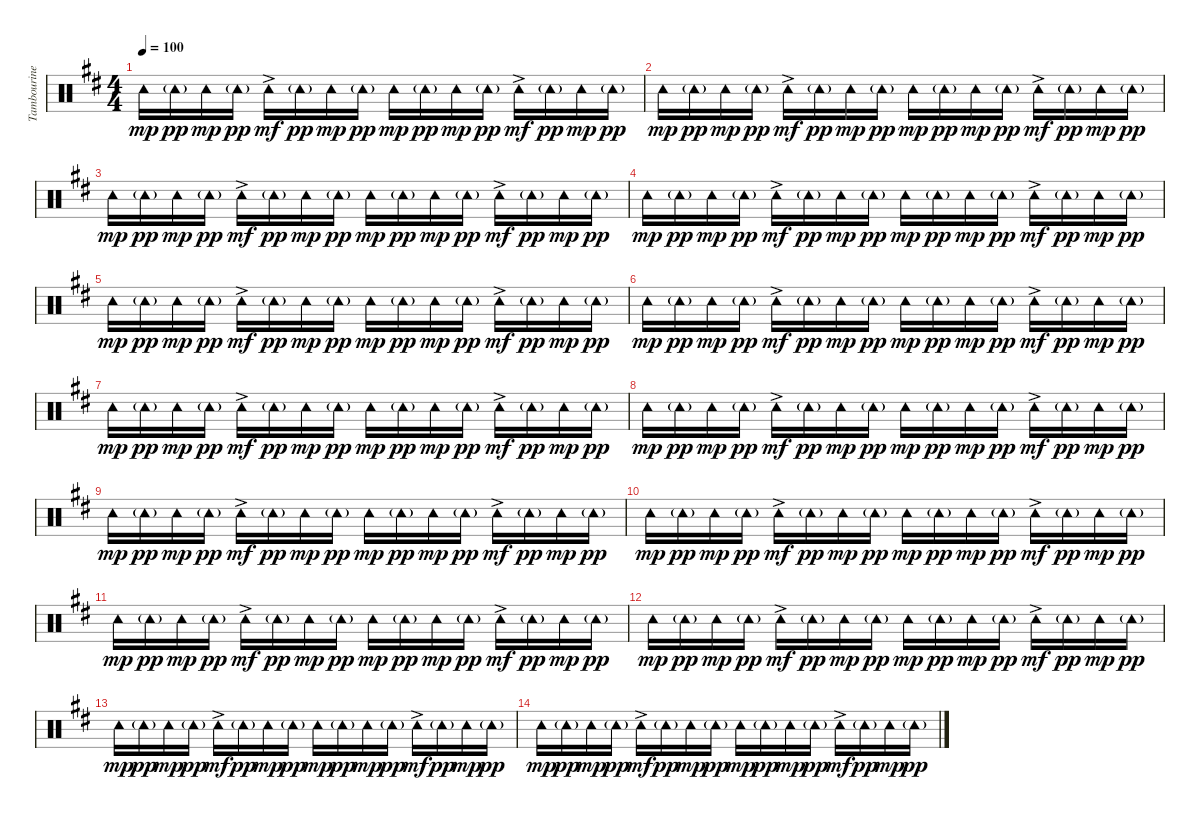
\track ("Tambourine" "Tambourine") {instrument percussion}
\staff {score}
\articulation defaults
\ts (4 4)
\tempo 100
\clef neutral
\ks d "Tambourine (hit)".16{dy mp} "Tambourine (hit)"{g}.16{dy pp} "Tambourine (hit)".16{dy mp} "Tambourine (hit)"{g}.16{dy pp} "Tambourine (hit)"{ac}.16{dy mf} "Tambourine (hit)"{g}.16{dy pp} "Tambourine (hit)".16{dy mp} "Tambourine (hit)"{g}.16{dy pp} "Tambourine (hit)".16{dy mp} "Tambourine (hit)"{g}.16{dy pp} "Tambourine (hit)".16{dy mp} "Tambourine (hit)"{g}.16{dy pp} "Tambourine (hit)"{ac}.16{dy mf} "Tambourine (hit)"{g}.16{dy pp} "Tambourine (hit)".16{dy mp} "Tambourine (hit)"{g}.16{dy pp}
|
"Tambourine (hit)".16{dy mp} "Tambourine (hit)"{g}.16{dy pp} "Tambourine (hit)".16{dy mp} "Tambourine (hit)"{g}.16{dy pp} "Tambourine (hit)"{ac}.16{dy mf} "Tambourine (hit)"{g}.16{dy pp} "Tambourine (hit)".16{dy mp} "Tambourine (hit)"{g}.16{dy pp} "Tambourine (hit)".16{dy mp} "Tambourine (hit)"{g}.16{dy pp} "Tambourine (hit)".16{dy mp} "Tambourine (hit)"{g}.16{dy pp} "Tambourine (hit)"{ac}.16{dy mf} "Tambourine (hit)"{g}.16{dy pp} "Tambourine (hit)".16{dy mp} "Tambourine (hit)"{g}.16{dy pp} |
"Tambourine (hit)".16{dy mp} "Tambourine (hit)"{g}.16{dy pp} "Tambourine (hit)".16{dy mp} "Tambourine (hit)"{g}.16{dy pp} "Tambourine (hit)"{ac}.16{dy mf} "Tambourine (hit)"{g}.16{dy pp} "Tambourine (hit)".16{dy mp} "Tambourine (hit)"{g}.16{dy pp} "Tambourine (hit)".16{dy mp} "Tambourine (hit)"{g}.16{dy pp} "Tambourine (hit)".16{dy mp} "Tambourine (hit)"{g}.16{dy pp} "Tambourine (hit)"{ac}.16{dy mf} "Tambourine (hit)"{g}.16{dy pp} "Tambourine (hit)".16{dy mp} "Tambourine (hit)"{g}.16{dy pp} |
"Tambourine (hit)".16{dy mp} "Tambourine (hit)"{g}.16{dy pp} "Tambourine (hit)".16{dy mp} "Tambourine (hit)"{g}.16{dy pp} "Tambourine (hit)"{ac}.16{dy mf} "Tambourine (hit)"{g}.16{dy pp} "Tambourine (hit)".16{dy mp} "Tambourine (hit)"{g}.16{dy pp} "Tambourine (hit)".16{dy mp} "Tambourine (hit)"{g}.16{dy pp} "Tambourine (hit)".16{dy mp} "Tambourine (hit)"{g}.16{dy pp} "Tambourine (hit)"{ac}.16{dy mf} "Tambourine (hit)"{g}.16{dy pp} "Tambourine (hit)".16{dy mp} "Tambourine (hit)"{g}.16{dy pp} |
"Tambourine (hit)".16{dy mp} "Tambourine (hit)"{g}.16{dy pp} "Tambourine (hit)".16{dy mp} "Tambourine (hit)"{g}.16{dy pp} "Tambourine (hit)"{ac}.16{dy mf} "Tambourine (hit)"{g}.16{dy pp} "Tambourine (hit)".16{dy mp} "Tambourine (hit)"{g}.16{dy pp} "Tambourine (hit)".16{dy mp} "Tambourine (hit)"{g}.16{dy pp} "Tambourine (hit)".16{dy mp} "Tambourine (hit)"{g}.16{dy pp} "Tambourine (hit)"{ac}.16{dy mf} "Tambourine (hit)"{g}.16{dy pp} "Tambourine (hit)".16{dy mp} "Tambourine (hit)"{g}.16{dy pp} |
"Tambourine (hit)".16{dy mp} "Tambourine (hit)"{g}.16{dy pp} "Tambourine (hit)".16{dy mp} "Tambourine (hit)"{g}.16{dy pp} "Tambourine (hit)"{ac}.16{dy mf} "Tambourine (hit)"{g}.16{dy pp} "Tambourine (hit)".16{dy mp} "Tambourine (hit)"{g}.16{dy pp} "Tambourine (hit)".16{dy mp} "Tambourine (hit)"{g}.16{dy pp} "Tambourine (hit)".16{dy mp} "Tambourine (hit)"{g}.16{dy pp} "Tambourine (hit)"{ac}.16{dy mf} "Tambourine (hit)"{g}.16{dy pp} "Tambourine (hit)".16{dy mp} "Tambourine (hit)"{g}.16{dy pp} |
"Tambourine (hit)".16{dy mp} "Tambourine (hit)"{g}.16{dy pp} "Tambourine (hit)".16{dy mp} "Tambourine (hit)"{g}.16{dy pp} "Tambourine (hit)"{ac}.16{dy mf} "Tambourine (hit)"{g}.16{dy pp} "Tambourine (hit)".16{dy mp} "Tambourine (hit)"{g}.16{dy pp} "Tambourine (hit)".16{dy mp} "Tambourine (hit)"{g}.16{dy pp} "Tambourine (hit)".16{dy mp} "Tambourine (hit)"{g}.16{dy pp} "Tambourine (hit)"{ac}.16{dy mf} "Tambourine (hit)"{g}.16{dy pp} "Tambourine (hit)".16{dy mp} "Tambourine (hit)"{g}.16{dy pp} |
"Tambourine (hit)".16{dy mp} "Tambourine (hit)"{g}.16{dy pp} "Tambourine (hit)".16{dy mp} "Tambourine (hit)"{g}.16{dy pp} "Tambourine (hit)"{ac}.16{dy mf} "Tambourine (hit)"{g}.16{dy pp} "Tambourine (hit)".16{dy mp} "Tambourine (hit)"{g}.16{dy pp} "Tambourine (hit)".16{dy mp} "Tambourine (hit)"{g}.16{dy pp} "Tambourine (hit)".16{dy mp} "Tambourine (hit)"{g}.16{dy pp} "Tambourine (hit)"{ac}.16{dy mf} "Tambourine (hit)"{g}.16{dy pp} "Tambourine (hit)".16{dy mp} "Tambourine (hit)"{g}.16{dy pp} |
"Tambourine (hit)".16{dy mp} "Tambourine (hit)"{g}.16{dy pp} "Tambourine (hit)".16{dy mp} "Tambourine (hit)"{g}.16{dy pp} "Tambourine (hit)"{ac}.16{dy mf} "Tambourine (hit)"{g}.16{dy pp} "Tambourine (hit)".16{dy mp} "Tambourine (hit)"{g}.16{dy pp} "Tambourine (hit)".16{dy mp} "Tambourine (hit)"{g}.16{dy pp} "Tambourine (hit)".16{dy mp} "Tambourine (hit)"{g}.16{dy pp} "Tambourine (hit)"{ac}.16{dy mf} "Tambourine (hit)"{g}.16{dy pp} "Tambourine (hit)".16{dy mp} "Tambourine (hit)"{g}.16{dy pp} |
"Tambourine (hit)".16{dy mp} "Tambourine (hit)"{g}.16{dy pp} "Tambourine (hit)".16{dy mp} "Tambourine (hit)"{g}.16{dy pp} "Tambourine (hit)"{ac}.16{dy mf} "Tambourine (hit)"{g}.16{dy pp} "Tambourine (hit)".16{dy mp} "Tambourine (hit)"{g}.16{dy pp} "Tambourine (hit)".16{dy mp} "Tambourine (hit)"{g}.16{dy pp} "Tambourine (hit)".16{dy mp} "Tambourine (hit)"{g}.16{dy pp} "Tambourine (hit)"{ac}.16{dy mf} "Tambourine (hit)"{g}.16{dy pp} "Tambourine (hit)".16{dy mp} "Tambourine (hit)"{g}.16{dy pp} |
"Tambourine (hit)".16{dy mp} "Tambourine (hit)"{g}.16{dy pp} "Tambourine (hit)".16{dy mp} "Tambourine (hit)"{g}.16{dy pp} "Tambourine (hit)"{ac}.16{dy mf} "Tambourine (hit)"{g}.16{dy pp} "Tambourine (hit)".16{dy mp} "Tambourine (hit)"{g}.16{dy pp} "Tambourine (hit)".16{dy mp} "Tambourine (hit)"{g}.16{dy pp} "Tambourine (hit)".16{dy mp} "Tambourine (hit)"{g}.16{dy pp} "Tambourine (hit)"{ac}.16{dy mf} "Tambourine (hit)"{g}.16{dy pp} "Tambourine (hit)".16{dy mp} "Tambourine (hit)"{g}.16{dy pp} |
"Tambourine (hit)".16{dy mp} "Tambourine (hit)"{g}.16{dy pp} "Tambourine (hit)".16{dy mp} "Tambourine (hit)"{g}.16{dy pp} "Tambourine (hit)"{ac}.16{dy mf} "Tambourine (hit)"{g}.16{dy pp} "Tambourine (hit)".16{dy mp} "Tambourine (hit)"{g}.16{dy pp} "Tambourine (hit)".16{dy mp} "Tambourine (hit)"{g}.16{dy pp} "Tambourine (hit)".16{dy mp} "Tambourine (hit)"{g}.16{dy pp} "Tambourine (hit)"{ac}.16{dy mf} "Tambourine (hit)"{g}.16{dy pp} "Tambourine (hit)".16{dy mp} "Tambourine (hit)"{g}.16{dy pp} |
"Tambourine (hit)".16{dy mp} "Tambourine (hit)"{g}.16{dy pp} "Tambourine (hit)".16{dy mp} "Tambourine (hit)"{g}.16{dy pp} "Tambourine (hit)"{ac}.16{dy mf} "Tambourine (hit)"{g}.16{dy pp} "Tambourine (hit)".16{dy mp} "Tambourine (hit)"{g}.16{dy pp} "Tambourine (hit)".16{dy mp} "Tambourine (hit)"{g}.16{dy pp} "Tambourine (hit)".16{dy mp} "Tambourine (hit)"{g}.16{dy pp} "Tambourine (hit)"{ac}.16{dy mf} "Tambourine (hit)"{g}.16{dy pp} "Tambourine (hit)".16{dy mp} "Tambourine (hit)"{g}.16{dy pp} |
"Tambourine (hit)".16{dy mp} "Tambourine (hit)"{g}.16{dy pp} "Tambourine (hit)".16{dy mp} "Tambourine (hit)"{g}.16{dy pp} "Tambourine (hit)"{ac}.16{dy mf} "Tambourine (hit)"{g}.16{dy pp} "Tambourine (hit)".16{dy mp} "Tambourine (hit)"{g}.16{dy pp} "Tambourine (hit)".16{dy mp} "Tambourine (hit)"{g}.16{dy pp} "Tambourine (hit)".16{dy mp} "Tambourine (hit)"{g}.16{dy pp} "Tambourine (hit)"{ac}.16{dy mf} "Tambourine (hit)"{g}.16{dy pp} "Tambourine (hit)".16{dy mp} "Tambourine (hit)"{g}.16{dy pp}
